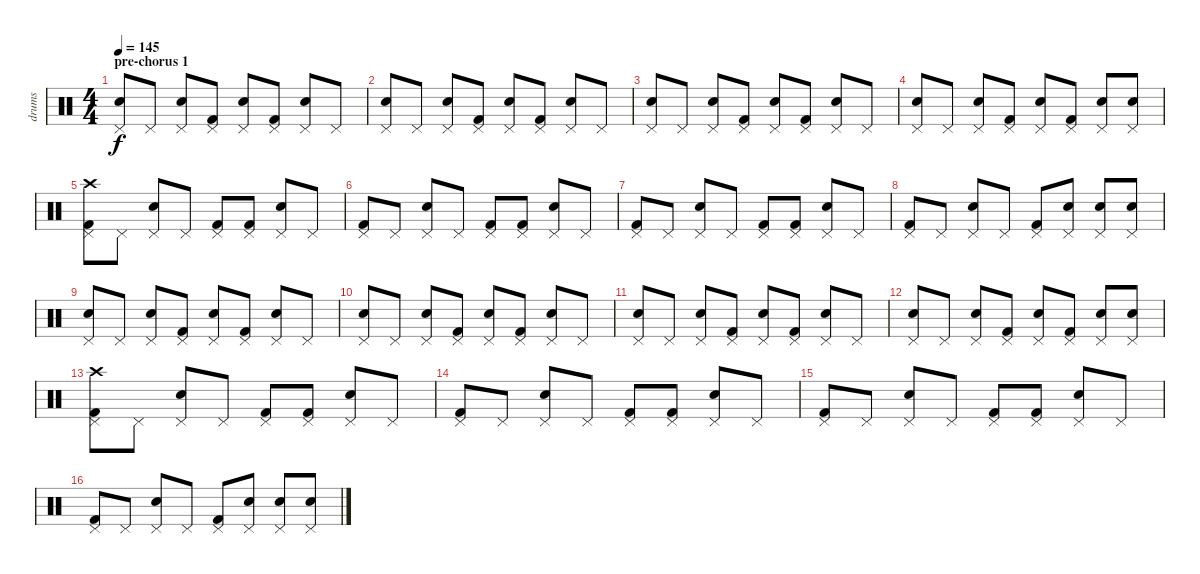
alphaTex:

\track ("drums" "drums") {instrument percussion}
\staff {score}
\articulation defaults
\ts (4 4)
\section ("" "pre-chorus 1")
\tempo 145
\clef neutral
\ks c
("Snare (hit) 2" "Pedal Hi-Hat (hit)").8{dy f} "Pedal Hi-Hat (hit)".8 ("Snare (hit) 2" "Pedal Hi-Hat (hit)").8 ("Kick (hit) 2" "Pedal Hi-Hat (hit)").8 ("Snare (hit) 2" "Pedal Hi-Hat (hit)").8 ("Kick (hit) 2" "Pedal Hi-Hat (hit)").8 ("Snare (hit) 2" "Pedal Hi-Hat (hit)").8 "Pedal Hi-Hat (hit)".8 |
("Snare (hit) 2" "Pedal Hi-Hat (hit)").8 "Pedal Hi-Hat (hit)".8 ("Snare (hit) 2" "Pedal Hi-Hat (hit)").8 ("Kick (hit) 2" "Pedal Hi-Hat (hit)").8 ("Snare (hit) 2" "Pedal Hi-Hat (hit)").8 ("Kick (hit) 2" "Pedal Hi-Hat (hit)").8 ("Snare (hit) 2" "Pedal Hi-Hat (hit)").8 "Pedal Hi-Hat (hit)".8 |
("Snare (hit) 2" "Pedal Hi-Hat (hit)").8 "Pedal Hi-Hat (hit)".8 ("Snare (hit) 2" "Pedal Hi-Hat (hit)").8 ("Kick (hit) 2" "Pedal Hi-Hat (hit)").8 ("Snare (hit) 2" "Pedal Hi-Hat (hit)").8 ("Kick (hit) 2" "Pedal Hi-Hat (hit)").8 ("Snare (hit) 2" "Pedal Hi-Hat (hit)").8 "Pedal Hi-Hat (hit)".8 |
("Snare (hit) 2" "Pedal Hi-Hat (hit)").8 "Pedal Hi-Hat (hit)".8 ("Snare (hit) 2" "Pedal Hi-Hat (hit)").8 ("Kick (hit) 2" "Pedal Hi-Hat (hit)").8 ("Snare (hit) 2" "Pedal Hi-Hat (hit)").8 ("Kick (hit) 2" "Pedal Hi-Hat (hit)").8 ("Snare (hit) 2" "Pedal Hi-Hat (hit)").8 ("Snare (hit) 2" "Pedal Hi-Hat (hit)").8 |
("Kick (hit) 2" "Crash high (hit)" "Pedal Hi-Hat (hit)").8 "Pedal Hi-Hat (hit)".8 ("Snare (hit) 2" "Pedal Hi-Hat (hit)").8 "Pedal Hi-Hat (hit)".8 ("Kick (hit) 2" "Pedal Hi-Hat (hit)").8 ("Kick (hit) 2" "Pedal Hi-Hat (hit)").8 ("Snare (hit) 2" "Pedal Hi-Hat (hit)").8 "Pedal Hi-Hat (hit)".8 |
("Kick (hit) 2" "Pedal Hi-Hat (hit)").8 "Pedal Hi-Hat (hit)".8 ("Snare (hit) 2" "Pedal Hi-Hat (hit)").8 "Pedal Hi-Hat (hit)".8 ("Kick (hit) 2" "Pedal Hi-Hat (hit)").8 ("Kick (hit) 2" "Pedal Hi-Hat (hit)").8 ("Snare (hit) 2" "Pedal Hi-Hat (hit)").8 "Pedal Hi-Hat (hit)".8 |
("Kick (hit) 2" "Pedal Hi-Hat (hit)").8 "Pedal Hi-Hat (hit)".8 ("Snare (hit) 2" "Pedal Hi-Hat (hit)").8 "Pedal Hi-Hat (hit)".8 ("Kick (hit) 2" "Pedal Hi-Hat (hit)").8 ("Kick (hit) 2" "Pedal Hi-Hat (hit)").8 ("Snare (hit) 2" "Pedal Hi-Hat (hit)").8 "Pedal Hi-Hat (hit)".8 |
("Kick (hit) 2" "Pedal Hi-Hat (hit)").8 "Pedal Hi-Hat (hit)".8 ("Snare (hit) 2" "Pedal Hi-Hat (hit)").8 "Pedal Hi-Hat (hit)".8 ("Kick (hit) 2" "Pedal Hi-Hat (hit)").8 ("Snare (hit) 2" "Pedal Hi-Hat (hit)").8 ("Snare (hit) 2" "Pedal Hi-Hat (hit)").8 ("Snare (hit) 2" "Pedal Hi-Hat (hit)").8 |
("Snare (hit) 2" "Pedal Hi-Hat (hit)").8 "Pedal Hi-Hat (hit)".8 ("Snare (hit) 2" "Pedal Hi-Hat (hit)").8 ("Kick (hit) 2" "Pedal Hi-Hat (hit)").8 ("Snare (hit) 2" "Pedal Hi-Hat (hit)").8 ("Kick (hit) 2" "Pedal Hi-Hat (hit)").8 ("Snare (hit) 2" "Pedal Hi-Hat (hit)").8 "Pedal Hi-Hat (hit)".8 |
("Snare (hit) 2" "Pedal Hi-Hat (hit)").8 "Pedal Hi-Hat (hit)".8 ("Snare (hit) 2" "Pedal Hi-Hat (hit)").8 ("Kick (hit) 2" "Pedal Hi-Hat (hit)").8 ("Snare (hit) 2" "Pedal Hi-Hat (hit)").8 ("Kick (hit) 2" "Pedal Hi-Hat (hit)").8 ("Snare (hit) 2" "Pedal Hi-Hat (hit)").8 "Pedal Hi-Hat (hit)".8 |
("Snare (hit) 2" "Pedal Hi-Hat (hit)").8 "Pedal Hi-Hat (hit)".8 ("Snare (hit) 2" "Pedal Hi-Hat (hit)").8 ("Kick (hit) 2" "Pedal Hi-Hat (hit)").8 ("Snare (hit) 2" "Pedal Hi-Hat (hit)").8 ("Kick (hit) 2" "Pedal Hi-Hat (hit)").8 ("Snare (hit) 2" "Pedal Hi-Hat (hit)").8 "Pedal Hi-Hat (hit)".8 |
("Snare (hit) 2" "Pedal Hi-Hat (hit)").8 "Pedal Hi-Hat (hit)".8 ("Snare (hit) 2" "Pedal Hi-Hat (hit)").8 ("Kick (hit) 2" "Pedal Hi-Hat (hit)").8 ("Snare (hit) 2" "Pedal Hi-Hat (hit)").8 ("Kick (hit) 2" "Pedal Hi-Hat (hit)").8 ("Snare (hit) 2" "Pedal Hi-Hat (hit)").8 ("Snare (hit) 2" "Pedal Hi-Hat (hit)").8 |
("Kick (hit) 2" "Crash high (hit)" "Pedal Hi-Hat (hit)").8 "Pedal Hi-Hat (hit)".8 ("Snare (hit) 2" "Pedal Hi-Hat (hit)").8 "Pedal Hi-Hat (hit)".8 ("Kick (hit) 2" "Pedal Hi-Hat (hit)").8 ("Kick (hit) 2" "Pedal Hi-Hat (hit)").8 ("Snare (hit) 2" "Pedal Hi-Hat (hit)").8 "Pedal Hi-Hat (hit)".8 |
("Kick (hit) 2" "Pedal Hi-Hat (hit)").8 "Pedal Hi-Hat (hit)".8 ("Snare (hit) 2" "Pedal Hi-Hat (hit)").8 "Pedal Hi-Hat (hit)".8 ("Kick (hit) 2" "Pedal Hi-Hat (hit)").8 ("Kick (hit) 2" "Pedal Hi-Hat (hit)").8 ("Snare (hit) 2" "Pedal Hi-Hat (hit)").8 "Pedal Hi-Hat (hit)".8 |
("Kick (hit) 2" "Pedal Hi-Hat (hit)").8 "Pedal Hi-Hat (hit)".8 ("Snare (hit) 2" "Pedal Hi-Hat (hit)").8 "Pedal Hi-Hat (hit)".8 ("Kick (hit) 2" "Pedal Hi-Hat (hit)").8 ("Kick (hit) 2" "Pedal Hi-Hat (hit)").8 ("Snare (hit) 2" "Pedal Hi-Hat (hit)").8 "Pedal Hi-Hat (hit)".8 |
("Kick (hit) 2" "Pedal Hi-Hat (hit)").8 "Pedal Hi-Hat (hit)".8 ("Snare (hit) 2" "Pedal Hi-Hat (hit)").8 "Pedal Hi-Hat (hit)".8 ("Kick (hit) 2" "Pedal Hi-Hat (hit)").8 ("Snare (hit) 2" "Pedal Hi-Hat (hit)").8 ("Snare (hit) 2" "Pedal Hi-Hat (hit)").8 ("Snare (hit) 2" "Pedal Hi-Hat (hit)").8
